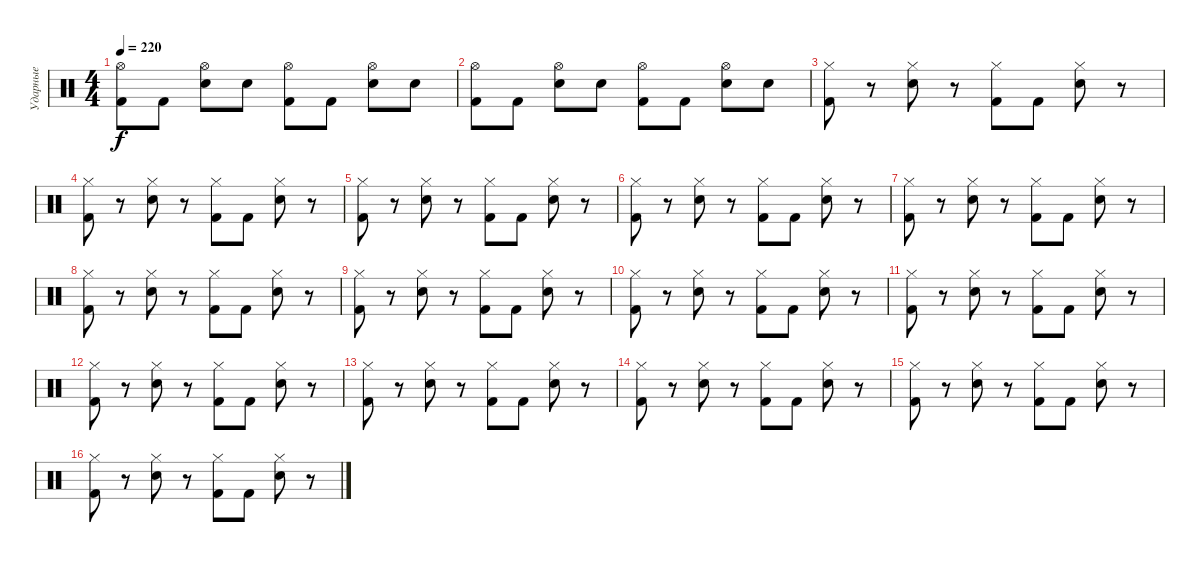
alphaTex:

\track ("Ударные" "Ударные") {instrument percussion}
\staff {score}
\articulation defaults
\ts (4 4)
\tempo 220
\clef neutral
\ks c
("Hi-Hat (open)" "Kick (hit) 2").8{dy f} "Kick (hit) 2".8 ("Hi-Hat (open)" "Electric Snare (hit)").8 "Electric Snare (hit)".8 ("Hi-Hat (open)" "Kick (hit) 2").8 "Kick (hit) 2".8 ("Hi-Hat (open)" "Electric Snare (hit)").8 "Electric Snare (hit)".8 |
("Hi-Hat (open)" "Kick (hit) 2").8 "Kick (hit) 2".8 ("Hi-Hat (open)" "Electric Snare (hit)").8 "Electric Snare (hit)".8 ("Hi-Hat (open)" "Kick (hit) 2").8 "Kick (hit) 2".8 ("Hi-Hat (open)" "Electric Snare (hit)").8 "Electric Snare (hit)".8 |
("Hi-Hat (closed)" "Kick (hit) 2").8 r.8 ("Hi-Hat (closed)" "Electric Snare (hit)").8 r.8 ("Hi-Hat (closed)" "Kick (hit) 2").8 "Kick (hit) 2".8 ("Hi-Hat (closed)" "Electric Snare (hit)").8 r.8 |
("Hi-Hat (closed)" "Kick (hit) 2").8 r.8 ("Hi-Hat (closed)" "Electric Snare (hit)").8 r.8 ("Hi-Hat (closed)" "Kick (hit) 2").8 "Kick (hit) 2".8 ("Hi-Hat (closed)" "Electric Snare (hit)").8 r.8 |
("Hi-Hat (closed)" "Kick (hit) 2").8 r.8 ("Hi-Hat (closed)" "Electric Snare (hit)").8 r.8 ("Hi-Hat (closed)" "Kick (hit) 2").8 "Kick (hit) 2".8 ("Hi-Hat (closed)" "Electric Snare (hit)").8 r.8 |
("Hi-Hat (closed)" "Kick (hit) 2").8 r.8 ("Hi-Hat (closed)" "Electric Snare (hit)").8 r.8 ("Hi-Hat (closed)" "Kick (hit) 2").8 "Kick (hit) 2".8 ("Hi-Hat (closed)" "Electric Snare (hit)").8 r.8 |
("Hi-Hat (closed)" "Kick (hit) 2").8 r.8 ("Hi-Hat (closed)" "Electric Snare (hit)").8 r.8 ("Hi-Hat (closed)" "Kick (hit) 2").8 "Kick (hit) 2".8 ("Hi-Hat (closed)" "Electric Snare (hit)").8 r.8 |
("Hi-Hat (closed)" "Kick (hit) 2").8 r.8 ("Hi-Hat (closed)" "Electric Snare (hit)").8 r.8 ("Hi-Hat (closed)" "Kick (hit) 2").8 "Kick (hit) 2".8 ("Hi-Hat (closed)" "Electric Snare (hit)").8 r.8 |
("Hi-Hat (closed)" "Kick (hit) 2").8 r.8 ("Hi-Hat (closed)" "Electric Snare (hit)").8 r.8 ("Hi-Hat (closed)" "Kick (hit) 2").8 "Kick (hit) 2".8 ("Hi-Hat (closed)" "Electric Snare (hit)").8 r.8 |
("Hi-Hat (closed)" "Kick (hit) 2").8 r.8 ("Hi-Hat (closed)" "Electric Snare (hit)").8 r.8 ("Hi-Hat (closed)" "Kick (hit) 2").8 "Kick (hit) 2".8 ("Hi-Hat (closed)" "Electric Snare (hit)").8 r.8 |
("Hi-Hat (closed)" "Kick (hit) 2").8 r.8 ("Hi-Hat (closed)" "Electric Snare (hit)").8 r.8 ("Hi-Hat (closed)" "Kick (hit) 2").8 "Kick (hit) 2".8 ("Hi-Hat (closed)" "Electric Snare (hit)").8 r.8 |
("Hi-Hat (closed)" "Kick (hit) 2").8 r.8 ("Hi-Hat (closed)" "Electric Snare (hit)").8 r.8 ("Hi-Hat (closed)" "Kick (hit) 2").8 "Kick (hit) 2".8 ("Hi-Hat (closed)" "Electric Snare (hit)").8 r.8 |
("Hi-Hat (closed)" "Kick (hit) 2").8 r.8 ("Hi-Hat (closed)" "Electric Snare (hit)").8 r.8 ("Hi-Hat (closed)" "Kick (hit) 2").8 "Kick (hit) 2".8 ("Hi-Hat (closed)" "Electric Snare (hit)").8 r.8 |
("Hi-Hat (closed)" "Kick (hit) 2").8 r.8 ("Hi-Hat (closed)" "Electric Snare (hit)").8 r.8 ("Hi-Hat (closed)" "Kick (hit) 2").8 "Kick (hit) 2".8 ("Hi-Hat (closed)" "Electric Snare (hit)").8 r.8 |
("Hi-Hat (closed)" "Kick (hit) 2").8 r.8 ("Hi-Hat (closed)" "Electric Snare (hit)").8 r.8 ("Hi-Hat (closed)" "Kick (hit) 2").8 "Kick (hit) 2".8 ("Hi-Hat (closed)" "Electric Snare (hit)").8 r.8 |
("Hi-Hat (closed)" "Kick (hit) 2").8 r.8 ("Hi-Hat (closed)" "Electric Snare (hit)").8 r.8 ("Hi-Hat (closed)" "Kick (hit) 2").8 "Kick (hit) 2".8 ("Hi-Hat (closed)" "Electric Snare (hit)").8 r.8
